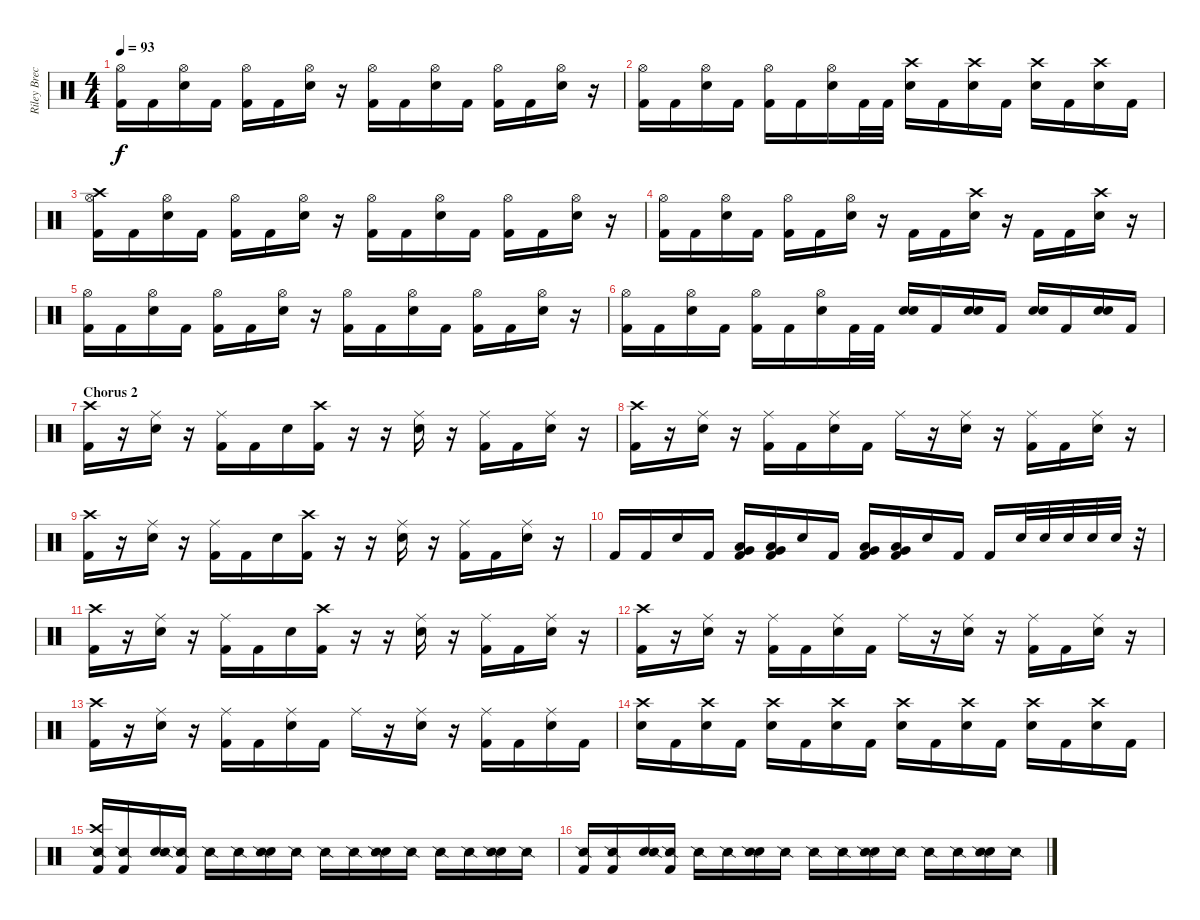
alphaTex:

\track ("Riley Breckenridge" "Riley Brec") {instrument percussion}
\staff {score}
\articulation defaults
\ts (4 4)
\tempo 93
\clef neutral
\ks c
("Kick (hit) 2" "Hi-Hat (open)").16{dy f} "Kick (hit) 2".16 ("Electric Snare (hit)" "Hi-Hat (open)").16 "Kick (hit) 2".16 ("Kick (hit) 2" "Hi-Hat (open)").16 "Kick (hit) 2".16 ("Electric Snare (hit)" "Hi-Hat (open)").16 r.16 ("Kick (hit) 2" "Hi-Hat (open)").16 "Kick (hit) 2".16 ("Electric Snare (hit)" "Hi-Hat (open)").16 "Kick (hit) 2".16 ("Kick (hit) 2" "Hi-Hat (open)").16 "Kick (hit) 2".16 ("Electric Snare (hit)" "Hi-Hat (open)").16 r.16 |
("Kick (hit) 2" "Hi-Hat (open)").16 "Kick (hit) 2".16 ("Electric Snare (hit)" "Hi-Hat (open)").16 "Kick (hit) 2".16 ("Kick (hit) 2" "Hi-Hat (open)").16 "Kick (hit) 2".16 ("Electric Snare (hit)" "Hi-Hat (open)").16 "Kick (hit) 2".32 "Kick (hit) 2".32 ("Electric Snare (hit)" "Crash high (hit)").16 "Kick (hit) 2".16 ("Electric Snare (hit)" "Crash high (hit)").16 "Kick (hit) 2".16 ("Electric Snare (hit)" "Crash high (hit)").16 "Kick (hit) 2".16 ("Electric Snare (hit)" "Crash high (hit)").16 "Kick (hit) 2".16 |
("Kick (hit) 2" "Crash high (hit)" "Hi-Hat (open)").16 "Kick (hit) 2".16 ("Electric Snare (hit)" "Hi-Hat (open)").16 "Kick (hit) 2".16 ("Kick (hit) 2" "Hi-Hat (open)").16 "Kick (hit) 2".16 ("Electric Snare (hit)" "Hi-Hat (open)").16 r.16 ("Kick (hit) 2" "Hi-Hat (open)").16 "Kick (hit) 2".16 ("Electric Snare (hit)" "Hi-Hat (open)").16 "Kick (hit) 2".16 ("Kick (hit) 2" "Hi-Hat (open)").16 "Kick (hit) 2".16 ("Electric Snare (hit)" "Hi-Hat (open)").16 r.16 |
("Kick (hit) 2" "Hi-Hat (open)").16 "Kick (hit) 2".16 ("Electric Snare (hit)" "Hi-Hat (open)").16 "Kick (hit) 2".16 ("Kick (hit) 2" "Hi-Hat (open)").16 "Kick (hit) 2".16 ("Electric Snare (hit)" "Hi-Hat (open)").16 r.16 "Kick (hit) 2".16 "Kick (hit) 2".16 ("Electric Snare (hit)" "Crash high (hit)").16 r.16 "Kick (hit) 2".16 "Kick (hit) 2".16 ("Electric Snare (hit)" "Crash high (hit)").16 r.16 |
("Kick (hit) 2" "Hi-Hat (open)").16 "Kick (hit) 2".16 ("Electric Snare (hit)" "Hi-Hat (open)").16 "Kick (hit) 2".16 ("Kick (hit) 2" "Hi-Hat (open)").16 "Kick (hit) 2".16 ("Electric Snare (hit)" "Hi-Hat (open)").16 r.16 ("Kick (hit) 2" "Hi-Hat (open)").16 "Kick (hit) 2".16 ("Electric Snare (hit)" "Hi-Hat (open)").16 "Kick (hit) 2".16 ("Kick (hit) 2" "Hi-Hat (open)").16 "Kick (hit) 2".16 ("Electric Snare (hit)" "Hi-Hat (open)").16 r.16 |
("Kick (hit) 2" "Hi-Hat (open)").16 "Kick (hit) 2".16 ("Electric Snare (hit)" "Hi-Hat (open)").16 "Kick (hit) 2".16 ("Kick (hit) 2" "Hi-Hat (open)").16 "Kick (hit) 2".16 ("Electric Snare (hit)" "Hi-Hat (open)").16 "Kick (hit) 2".32 "Kick (hit) 2".32 ("Electric Snare (hit)" "Electric Snare (hit)").16 "Kick (hit) 2".16 ("Electric Snare (hit)" "Electric Snare (hit)").16 "Kick (hit) 2".16 ("Electric Snare (hit)" "Electric Snare (hit)").16 "Kick (hit) 2".16 ("Electric Snare (hit)" "Electric Snare (hit)").16 "Kick (hit) 2".16 |
\section ("" "Chorus 2")
("Kick (hit) 2" "Crash high (hit)").16 r.16 ("Electric Snare (hit)" "Ride (middle)").16 r.16 ("Kick (hit) 2" "Ride (middle)").16 "Kick (hit) 2".16 "Electric Snare (hit)".16 ("Kick (hit) 2" "Crash high (hit)").16 r.16 r.16 ("Electric Snare (hit)" "Ride (middle)").16 r.16 ("Kick (hit) 2" "Ride (middle)").16 "Kick (hit) 2".16 ("Electric Snare (hit)" "Ride (middle)").16 r.16 |
("Kick (hit) 2" "Crash high (hit)").16 r.16 ("Electric Snare (hit)" "Ride (middle)").16 r.16 ("Kick (hit) 2" "Ride (middle)").16 "Kick (hit) 2".16 ("Electric Snare (hit)" "Ride (middle)").16 "Kick (hit) 2".16 "Ride (middle)".16 r.16 ("Electric Snare (hit)" "Ride (middle)").16 r.16 ("Kick (hit) 2" "Ride (middle)").16 "Kick (hit) 2".16 ("Electric Snare (hit)" "Ride (middle)").16 r.16 |
("Kick (hit) 2" "Crash high (hit)").16 r.16 ("Electric Snare (hit)" "Ride (middle)").16 r.16 ("Kick (hit) 2" "Ride (middle)").16 "Kick (hit) 2".16 "Electric Snare (hit)".16 ("Kick (hit) 2" "Crash high (hit)").16 r.16 r.16 ("Electric Snare (hit)" "Ride (middle)").16 r.16 ("Kick (hit) 2" "Ride (middle)").16 "Kick (hit) 2".16 ("Electric Snare (hit)" "Ride (middle)").16 r.16 |
"Kick (hit) 2".16 "Kick (hit) 2".16 "Electric Snare (hit)".16 "Kick (hit) 2".16 ("Kick (hit) 2" "Very Low Tom (hit)" "Low Floor Tom (hit)").16 ("Kick (hit) 2" "Very Low Tom (hit)" "Low Floor Tom (hit)").16 "Electric Snare (hit)".16 "Kick (hit) 2".16 ("Kick (hit) 2" "Very Low Tom (hit)" "Low Floor Tom (hit)").16 ("Kick (hit) 2" "Very Low Tom (hit)" "Low Floor Tom (hit)").16 "Electric Snare (hit)".16 "Kick (hit) 2".16 "Kick (hit) 2".16 "Electric Snare (hit)".32 "Electric Snare (hit)".32 "Electric Snare (hit)".32 "Electric Snare (hit)".32 "Electric Snare (hit)".32 r.32 |
("Kick (hit) 2" "Crash high (hit)").16 r.16 ("Electric Snare (hit)" "Ride (middle)").16 r.16 ("Kick (hit) 2" "Ride (middle)").16 "Kick (hit) 2".16 "Electric Snare (hit)".16 ("Kick (hit) 2" "Crash high (hit)").16 r.16 r.16 ("Electric Snare (hit)" "Ride (middle)").16 r.16 ("Kick (hit) 2" "Ride (middle)").16 "Kick (hit) 2".16 ("Electric Snare (hit)" "Ride (middle)").16 r.16 |
("Kick (hit) 2" "Crash high (hit)").16 r.16 ("Electric Snare (hit)" "Ride (middle)").16 r.16 ("Kick (hit) 2" "Ride (middle)").16 "Kick (hit) 2".16 ("Electric Snare (hit)" "Ride (middle)").16 "Kick (hit) 2".16 "Ride (middle)".16 r.16 ("Electric Snare (hit)" "Ride (middle)").16 r.16 ("Kick (hit) 2" "Ride (middle)").16 "Kick (hit) 2".16 ("Electric Snare (hit)" "Ride (middle)").16 r.16 |
("Kick (hit) 2" "Crash high (hit)").16 r.16 ("Electric Snare (hit)" "Ride (middle)").16 r.16 ("Kick (hit) 2" "Ride (middle)").16 "Kick (hit) 2".16 ("Electric Snare (hit)" "Ride (middle)").16 "Kick (hit) 2".16 "Ride (middle)".16 r.16 ("Electric Snare (hit)" "Ride (middle)").16 r.16 ("Kick (hit) 2" "Ride (middle)").16 "Kick (hit) 2".16 ("Electric Snare (hit)" "Ride (middle)").16 "Kick (hit) 2".16 |
("Crash high (hit)" "Electric Snare (hit)").16 "Kick (hit) 2".16 ("Electric Snare (hit)" "Crash high (hit)").16 "Kick (hit) 2".16 ("Electric Snare (hit)" "Crash high (hit)").16 "Kick (hit) 2".16 ("Electric Snare (hit)" "Crash high (hit)").16 "Kick (hit) 2".16 ("Electric Snare (hit)" "Crash high (hit)").16 "Kick (hit) 2".16 ("Electric Snare (hit)" "Crash high (hit)").16 "Kick (hit) 2".16 ("Electric Snare (hit)" "Crash high (hit)").16 "Kick (hit) 2".16 ("Electric Snare (hit)" "Crash high (hit)").16 "Kick (hit) 2".16 |
("Kick (hit) 2" "Crash high (hit)" "Snare (side stick) 2").16 ("Kick (hit) 2" "Snare (side stick) 2").16 ("Electric Snare (hit)" "Snare (side stick) 2").16 ("Kick (hit) 2" "Snare (side stick) 2").16 "Snare (side stick) 2".16 "Snare (side stick) 2".16 ("Electric Snare (hit)" "Snare (side stick) 2").16 "Snare (side stick) 2".16 "Snare (side stick) 2".16 "Snare (side stick) 2".16 ("Electric Snare (hit)" "Snare (side stick) 2").16 "Snare (side stick) 2".16 "Snare (side stick) 2".16 "Snare (side stick) 2".16 ("Electric Snare (hit)" "Snare (side stick) 2").16 "Snare (side stick) 2".16 |
("Kick (hit) 2" "Snare (side stick) 2").16 ("Kick (hit) 2" "Snare (side stick) 2").16 ("Electric Snare (hit)" "Snare (side stick) 2").16 ("Kick (hit) 2" "Snare (side stick) 2").16 "Snare (side stick) 2".16 "Snare (side stick) 2".16 ("Electric Snare (hit)" "Snare (side stick) 2").16 "Snare (side stick) 2".16 "Snare (side stick) 2".16 "Snare (side stick) 2".16 ("Electric Snare (hit)" "Snare (side stick) 2").16 "Snare (side stick) 2".16 "Snare (side stick) 2".16 "Snare (side stick) 2".16 ("Electric Snare (hit)" "Snare (side stick) 2").16 "Snare (side stick) 2".16
